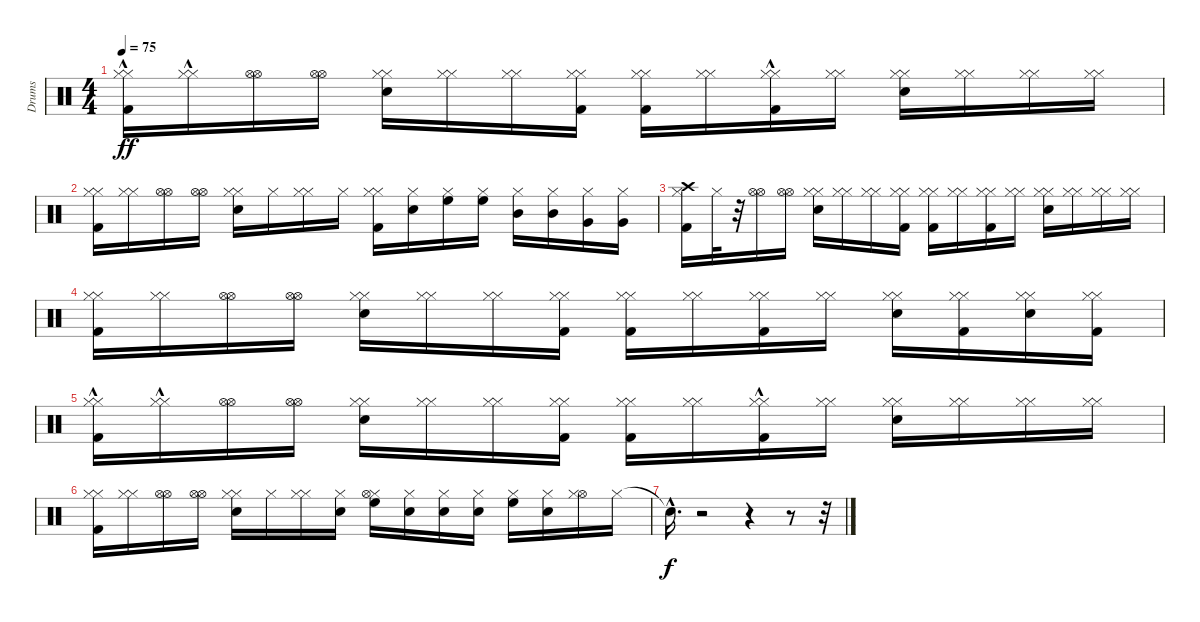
\track ("Drums" "Drums") {instrument percussion}
\staff {score}
\articulation defaults
\ts (4 4)
\tempo 75
\clef neutral
\ks c
("Hi-Hat (closed)" "Kick (hit) 2"{hac} "Hi-Hat (closed)").16{dy ff volume 9} ("Hi-Hat (closed)"{hac} "Hi-Hat (closed)"{hac}).16 ("Hi-Hat (open)" "Hi-Hat (open)").16{volume 9} ("Hi-Hat (open)" "Hi-Hat (open)").16 ("Hi-Hat (closed)" "Snare (hit) 2" "Hi-Hat (closed)").16{volume 8} ("Hi-Hat (closed)" "Hi-Hat (closed)").16{volume 8} ("Hi-Hat (closed)" "Hi-Hat (closed)").16 ("Hi-Hat (closed)" "Kick (hit) 2" "Hi-Hat (closed)").16{volume 8} ("Hi-Hat (closed)" "Kick (hit) 2" "Hi-Hat (closed)").16{volume 8} ("Hi-Hat (closed)" "Hi-Hat (closed)").16 ("Kick (hit) 2"{hac} "Hi-Hat (closed)" "Hi-Hat (closed)").16{volume 8} ("Hi-Hat (closed)" "Hi-Hat (closed)").16 ("Snare (hit) 2" "Hi-Hat (closed)" "Hi-Hat (closed)").16{volume 8} ("Hi-Hat (closed)" "Hi-Hat (closed)").16{volume 8} ("Hi-Hat (closed)" "Hi-Hat (closed)").16 ("Hi-Hat (closed)" "Hi-Hat (closed)").16{volume 8} |
("Kick (hit) 2" "Hi-Hat (closed)" "Hi-Hat (closed)").16{volume 8} ("Hi-Hat (closed)" "Hi-Hat (closed)").16 ("Hi-Hat (open)" "Hi-Hat (open)").16{volume 7} ("Hi-Hat (open)" "Hi-Hat (open)").16 ("Snare (hit) 2" "Hi-Hat (closed)" "Hi-Hat (closed)").16{volume 7} "Hi-Hat (closed)".16{volume 7} ("Hi-Hat (closed)" "Hi-Hat (closed)").16 "Hi-Hat (closed)".16{volume 7} ("Kick (hit) 2" "Hi-Hat (closed)" "Hi-Hat (closed)").16{volume 7} ("Snare (hit) 2" "Hi-Hat (closed)").16 ("Hi-Hat (closed)" "High Floor Tom (hit)").16{volume 7} ("Hi-Hat (closed)" "High Floor Tom (hit)").16 ("Hi-Hat (closed)" "Mid Tom (hit)").16{volume 7} ("Hi-Hat (closed)" "Mid Tom (hit)").16{volume 6} ("Hi-Hat (closed)" "Very Low Tom (hit)").16 ("Very Low Tom (hit)" "Hi-Hat (closed)").16{volume 6} |
("Hi-Hat (closed)" "Kick (hit) 2" "Crash high (hit)").16{volume 6} "Hi-Hat (closed)".32 r.32 ("Hi-Hat (open)" "Hi-Hat (open)").16{volume 6} ("Hi-Hat (open)" "Hi-Hat (open)").16 ("Hi-Hat (closed)" "Snare (hit) 2" "Hi-Hat (closed)").16{volume 6} ("Hi-Hat (closed)" "Hi-Hat (closed)").16{volume 6} ("Hi-Hat (closed)" "Hi-Hat (closed)").16 ("Hi-Hat (closed)" "Kick (hit) 2" "Hi-Hat (closed)").16{volume 6} ("Hi-Hat (closed)" "Kick (hit) 2" "Hi-Hat (closed)").16{volume 6} ("Hi-Hat (closed)" "Hi-Hat (closed)").16 ("Hi-Hat (closed)" "Kick (hit) 2" "Hi-Hat (closed)").16{volume 6} ("Hi-Hat (closed)" "Hi-Hat (closed)").16 ("Hi-Hat (closed)" "Snare (hit) 2" "Hi-Hat (closed)").16{volume 5} ("Hi-Hat (closed)" "Hi-Hat (closed)").16{volume 5} ("Hi-Hat (closed)" "Hi-Hat (closed)").16 ("Hi-Hat (closed)" "Hi-Hat (closed)").16{volume 5} |
("Hi-Hat (closed)" "Kick (hit) 2" "Hi-Hat (closed)").16{volume 5} ("Hi-Hat (closed)" "Hi-Hat (closed)").16 ("Hi-Hat (open)" "Hi-Hat (open)").16{volume 5} ("Hi-Hat (open)" "Hi-Hat (open)").16 ("Hi-Hat (closed)" "Snare (hit) 2" "Hi-Hat (closed)").16{volume 5} ("Hi-Hat (closed)" "Hi-Hat (closed)").16{volume 5} ("Hi-Hat (closed)" "Hi-Hat (closed)").16 ("Hi-Hat (closed)" "Kick (hit) 2" "Hi-Hat (closed)").16{volume 4} ("Hi-Hat (closed)" "Kick (hit) 2" "Hi-Hat (closed)").16{volume 4} ("Hi-Hat (closed)" "Hi-Hat (closed)").16 ("Hi-Hat (closed)" "Kick (hit) 2" "Hi-Hat (closed)").16{volume 4} ("Hi-Hat (closed)" "Hi-Hat (closed)").16 ("Hi-Hat (closed)" "Snare (hit) 2" "Hi-Hat (closed)").16{volume 4} ("Hi-Hat (closed)" "Kick (hit) 2" "Hi-Hat (closed)").16{volume 4} ("Snare (hit) 2" "Hi-Hat (closed)" "Hi-Hat (closed)").16 ("Kick (hit) 2" "Hi-Hat (closed)" "Hi-Hat (closed)").16{volume 4} |
("Hi-Hat (closed)" "Kick (hit) 2"{hac} "Hi-Hat (closed)").16{volume 4} ("Hi-Hat (closed)"{hac} "Hi-Hat (closed)"{hac}).16 ("Hi-Hat (open)" "Hi-Hat (open)").16{volume 4} ("Hi-Hat (open)" "Hi-Hat (open)").16 ("Hi-Hat (closed)" "Snare (hit) 2" "Hi-Hat (closed)").16{volume 4} ("Hi-Hat (closed)" "Hi-Hat (closed)").16{volume 3} ("Hi-Hat (closed)" "Hi-Hat (closed)").16 ("Hi-Hat (closed)" "Kick (hit) 2" "Hi-Hat (closed)").16{volume 3} ("Hi-Hat (closed)" "Kick (hit) 2" "Hi-Hat (closed)").16{volume 3} ("Hi-Hat (closed)" "Hi-Hat (closed)").16 ("Kick (hit) 2"{hac} "Hi-Hat (closed)" "Hi-Hat (closed)").16{volume 3} ("Hi-Hat (closed)" "Hi-Hat (closed)").16 ("Snare (hit) 2" "Hi-Hat (closed)" "Hi-Hat (closed)").16{volume 3} ("Hi-Hat (closed)" "Hi-Hat (closed)").16{volume 3} ("Hi-Hat (closed)" "Hi-Hat (closed)").16 ("Hi-Hat (closed)" "Hi-Hat (closed)").16{volume 3} |
("Hi-Hat (closed)" "Kick (hit) 2" "Hi-Hat (closed)").16{volume 2} ("Hi-Hat (closed)" "Hi-Hat (closed)").16 ("Hi-Hat (open)" "Hi-Hat (open)").16{volume 2} ("Hi-Hat (open)" "Hi-Hat (open)").16 ("Hi-Hat (closed)" "Snare (hit) 2" "Hi-Hat (closed)").16{volume 2} "Hi-Hat (closed)".16{volume 2} ("Hi-Hat (closed)" "Hi-Hat (closed)").16 ("Snare (hit) 2" "Hi-Hat (closed)").16{volume 2} ("Hi-Hat (closed)" "Hi-Hat (open)" "High Floor Tom (hit)").16{volume 2} ("Snare (hit) 2" "Hi-Hat (closed)").16 ("Snare (hit) 2" "Hi-Hat (closed)").16{volume 2} ("Snare (hit) 2" "Hi-Hat (closed)").16 ("Hi-Hat (closed)" "High Floor Tom (hit)").16{volume 2} ("Snare (hit) 2" "Hi-Hat (closed)").16{volume 2} ("Hi-Hat (open)" "Hi-Hat (closed)").16 "Hi-Hat (closed)".16{volume 1} |
"Snare (hit)"{hac t}.16{d dy f} r.2 r.4 r.8 r.32
